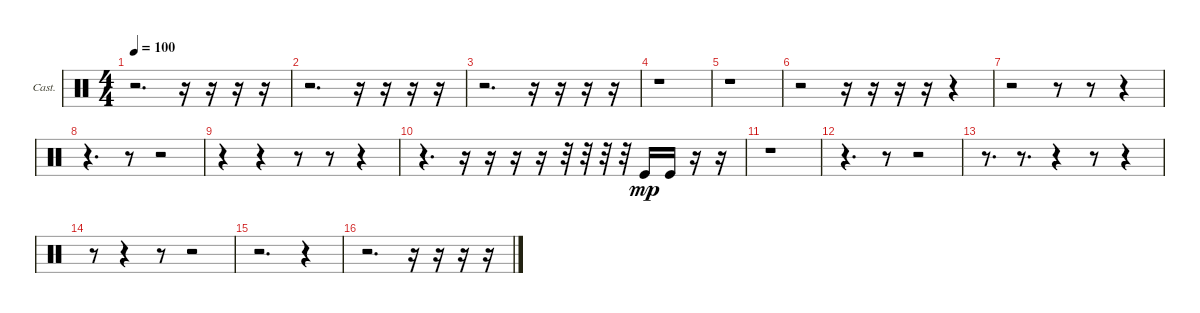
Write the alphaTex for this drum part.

\bracketExtendMode groupsimilarinstruments
\firstSystemTrackNameOrientation horizontal
\otherSystemsTrackNameOrientation horizontal
\track ("Castanets" "Cast.") {instrument percussion}
\staff {score}
\articulation defaults
\ts (4 4)
\tempo 100
\clef neutral
\ks c
r.2{d dy mp} r.16 r.16 r.16 r.16 |
r.2{d} r.16 r.16 r.16 r.16 |
r.2{d} r.16 r.16 r.16 r.16 |
r.1 |
r.1 |
r.2 r.16 r.16 r.16 r.16 r.4 |
r.2 r.8 r.8 r.4 |
r.4{d} r.8 r.2 |
r.4 r.4 r.8 r.8 r.4 |
r.4{d} r.16 r.16 r.16 r.16 r.32 r.32 r.32 r.32 "Kick (hit)".16 "Kick (hit)".16 r.16 r.16 |
r.1 |
r.4{d} r.8 r.2 |
r.8{d} r.8{d} r.4 r.8 r.4 |
r.8 r.4 r.8 r.2 |
r.2{d} r.4 |
r.2{d} r.16 r.16 r.16 r.16
